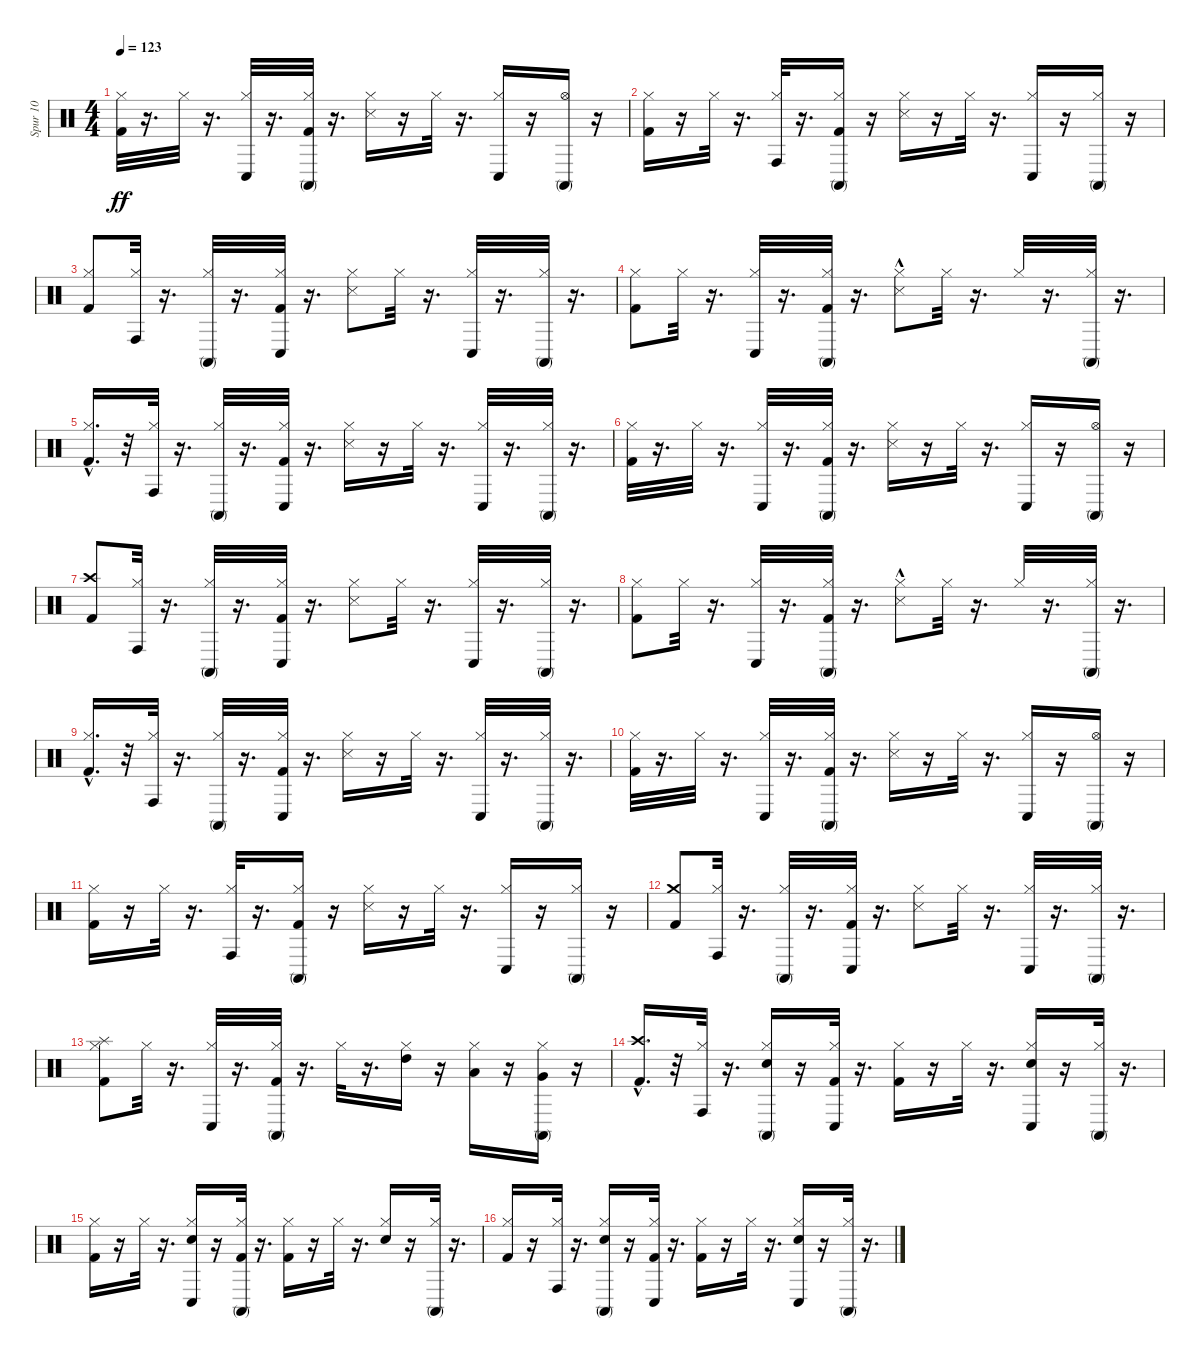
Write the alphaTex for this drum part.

\track ("Spur 10" "Spur 10") {instrument percussion}
\staff {score}
\articulation defaults
\ts (4 4)
\tempo 123
\clef neutral
\ks c
("Kick (hit) 2" "Hi-Hat (closed)").32{dy ff} r.16{d} "Hi-Hat (closed)".32 r.16{d} ("Conga low (hit)" "Hi-Hat (closed)").32 r.16{d} ("Kick (hit) 2" "Conga high (mute)" "Hi-Hat (closed)").32 r.16{d} ("Snare (side stick) 3" "Hi-Hat (closed)").16 r.16 "Hi-Hat (closed)".32 r.16{d} ("Conga low (hit)" "Hi-Hat (closed)").16 r.16 ("Conga high (mute)" "Hi-Hat (open)").16 r.16 |
("Kick (hit) 2" "Hi-Hat (closed)").16 r.16 "Hi-Hat (closed)".32 r.16{d} ("Conga high (hit)" "Hi-Hat (closed)").32 r.16{d} ("Kick (hit) 2" "Conga high (mute)" "Hi-Hat (closed)").16 r.16 ("Snare (side stick) 3" "Hi-Hat (closed)").16 r.16 "Hi-Hat (closed)".32 r.16{d} ("Conga low (hit)" "Hi-Hat (closed)").16 r.16 ("Conga high (mute)" "Hi-Hat (closed)").16 r.16 |
("Kick (hit) 2" "Hi-Hat (closed)").8 ("Conga high (hit)" "Hi-Hat (closed)").32 r.16{d} ("Conga high (mute)" "Hi-Hat (closed)").32 r.16{d} ("Kick (hit) 2" "Conga low (hit)" "Hi-Hat (closed)").32 r.16{d} ("Snare (side stick) 3" "Hi-Hat (closed)").8 "Hi-Hat (closed)".32 r.16{d} ("Conga low (hit)" "Hi-Hat (closed)").32 r.16{d} ("Conga high (mute)" "Hi-Hat (closed)").32 r.16{d} |
("Kick (hit) 2" "Hi-Hat (closed)").8 "Hi-Hat (closed)".32 r.16{d} ("Hi-Hat (closed)" "Conga low (hit)").32 r.16{d} ("Kick (hit) 2" "Hi-Hat (closed)" "Conga high (mute)").32 r.16{d} ("Snare (side stick) 3"{hac} "Hi-Hat (closed)").8 "Hi-Hat (closed)".32 r.16{d} "Hi-Hat (closed)".32 r.16{d} ("Conga high (mute)" "Hi-Hat (closed)").32 r.16{d} |
("Kick (hit) 2"{hac} "Hi-Hat (closed)").16{d} r.32 ("Conga high (hit)" "Hi-Hat (closed)").32 r.16{d} ("Conga high (mute)" "Hi-Hat (closed)").32 r.16{d} ("Kick (hit) 2" "Conga low (hit)" "Hi-Hat (closed)").32 r.16{d} ("Snare (side stick) 3" "Hi-Hat (closed)").16 r.16 "Hi-Hat (closed)".32 r.16{d} ("Conga low (hit)" "Hi-Hat (closed)").32 r.16{d} ("Conga high (mute)" "Hi-Hat (closed)").32 r.16{d} |
("Kick (hit) 2" "Hi-Hat (closed)").32 r.16{d} "Hi-Hat (closed)".32 r.16{d} ("Conga low (hit)" "Hi-Hat (closed)").32 r.16{d} ("Kick (hit) 2" "Conga high (mute)" "Hi-Hat (closed)").32 r.16{d} ("Snare (side stick) 3" "Hi-Hat (closed)").16 r.16 "Hi-Hat (closed)".32 r.16{d} ("Conga low (hit)" "Hi-Hat (closed)").16 r.16 ("Conga high (mute)" "Hi-Hat (open)").16 r.16 |
("Kick (hit) 2" "Crash high (hit)").8 ("Conga high (hit)" "Hi-Hat (closed)").32 r.16{d} ("Conga high (mute)" "Hi-Hat (closed)").32 r.16{d} ("Kick (hit) 2" "Conga low (hit)" "Hi-Hat (closed)").32 r.16{d} ("Snare (side stick) 3" "Hi-Hat (closed)").8 "Hi-Hat (closed)".32 r.16{d} ("Conga low (hit)" "Hi-Hat (closed)").32 r.16{d} ("Conga high (mute)" "Hi-Hat (closed)").32 r.16{d} |
("Kick (hit) 2" "Hi-Hat (closed)").8 "Hi-Hat (closed)".32 r.16{d} ("Hi-Hat (closed)" "Conga low (hit)").32 r.16{d} ("Kick (hit) 2" "Hi-Hat (closed)" "Conga high (mute)").32 r.16{d} ("Snare (side stick) 3"{hac} "Hi-Hat (closed)").8 "Hi-Hat (closed)".32 r.16{d} "Hi-Hat (closed)".32 r.16{d} ("Conga high (mute)" "Hi-Hat (closed)").32 r.16{d} |
("Kick (hit) 2"{hac} "Hi-Hat (closed)").16{d} r.32 ("Conga high (hit)" "Hi-Hat (closed)").32 r.16{d} ("Conga high (mute)" "Hi-Hat (closed)").32 r.16{d} ("Kick (hit) 2" "Conga low (hit)" "Hi-Hat (closed)").32 r.16{d} ("Snare (side stick) 3" "Hi-Hat (closed)").16 r.16 "Hi-Hat (closed)".32 r.16{d} ("Conga low (hit)" "Hi-Hat (closed)").32 r.16{d} ("Conga high (mute)" "Hi-Hat (closed)").32 r.16{d} |
("Kick (hit) 2" "Hi-Hat (closed)").32 r.16{d} "Hi-Hat (closed)".32 r.16{d} ("Conga low (hit)" "Hi-Hat (closed)").32 r.16{d} ("Kick (hit) 2" "Conga high (mute)" "Hi-Hat (closed)").32 r.16{d} ("Snare (side stick) 3" "Hi-Hat (closed)").16 r.16 "Hi-Hat (closed)".32 r.16{d} ("Conga low (hit)" "Hi-Hat (closed)").16 r.16 ("Conga high (mute)" "Hi-Hat (open)").16 r.16 |
("Kick (hit) 2" "Hi-Hat (closed)").16 r.16 "Hi-Hat (closed)".32 r.16{d} ("Conga high (hit)" "Hi-Hat (closed)").32 r.16{d} ("Kick (hit) 2" "Conga high (mute)" "Hi-Hat (closed)").16 r.16 ("Snare (side stick) 3" "Hi-Hat (closed)").16 r.16 "Hi-Hat (closed)".32 r.16{d} ("Conga low (hit)" "Hi-Hat (closed)").16 r.16 ("Conga high (mute)" "Hi-Hat (closed)").16 r.16 |
("Kick (hit) 2" "Crash medium (hit)").8 ("Conga high (hit)" "Hi-Hat (closed)").32 r.16{d} ("Conga high (mute)" "Hi-Hat (closed)").32 r.16{d} ("Kick (hit) 2" "Conga low (hit)" "Hi-Hat (closed)").32 r.16{d} ("Snare (side stick) 3" "Hi-Hat (closed)").8 "Hi-Hat (closed)".32 r.16{d} ("Conga low (hit)" "Hi-Hat (closed)").32 r.16{d} ("Conga high (mute)" "Hi-Hat (closed)").32 r.16{d} |
("Kick (hit) 2" "Splash (hit)" "Hi-Hat (closed)").8 "Hi-Hat (closed)".32 r.16{d} ("Hi-Hat (closed)" "Conga low (hit)").32 r.16{d} ("Kick (hit) 2" "Hi-Hat (closed)" "Conga high (mute)").32 r.16{d} "Hi-Hat (closed)".32 r.16{d} ("High Tom (hit)" "Hi-Hat (closed)").16 r.16 ("Low Tom (hit)" "Hi-Hat (closed)").16 r.16 ("Very Low Tom (hit)" "Conga high (mute)" "Hi-Hat (closed)").16 r.16 |
("Kick (hit) 2"{hac} "Crash high (hit)").16{d} r.32 ("Conga high (hit)" "Hi-Hat (closed)").32 r.16{d} ("Snare (hit) 2" "Conga high (mute)" "Hi-Hat (closed)").16 r.16 ("Kick (hit) 2" "Conga low (hit)" "Hi-Hat (closed)").32 r.16{d} ("Kick (hit) 2" "Hi-Hat (closed)").16 r.16 "Hi-Hat (closed)".32 r.16{d} ("Snare (hit) 2" "Conga low (hit)" "Hi-Hat (closed)").16 r.16 ("Conga high (mute)" "Hi-Hat (closed)").32 r.16{d} |
("Kick (hit) 2" "Hi-Hat (closed)").16 r.16 "Hi-Hat (closed)".32 r.16{d} ("Snare (hit) 2" "Hi-Hat (closed)" "Conga low (hit)").16 r.16 ("Kick (hit) 2" "Hi-Hat (closed)" "Conga high (mute)").32 r.16{d} ("Kick (hit) 2" "Hi-Hat (closed)").16 r.16 "Hi-Hat (closed)".32 r.16{d} ("Snare (hit) 2" "Hi-Hat (closed)").16 r.16 ("Conga high (mute)" "Hi-Hat (closed)").32 r.16{d} |
("Kick (hit) 2" "Hi-Hat (closed)").16 r.16 ("Conga high (hit)" "Hi-Hat (closed)").32 r.16{d} ("Snare (hit) 2" "Conga high (mute)" "Hi-Hat (closed)").16 r.16 ("Kick (hit) 2" "Conga low (hit)" "Hi-Hat (closed)").32 r.16{d} ("Kick (hit) 2" "Hi-Hat (closed)").16 r.16 "Hi-Hat (closed)".32 r.16{d} ("Snare (hit) 2" "Conga low (hit)" "Hi-Hat (closed)").16 r.16 ("Conga high (mute)" "Hi-Hat (closed)").32 r.16{d}
